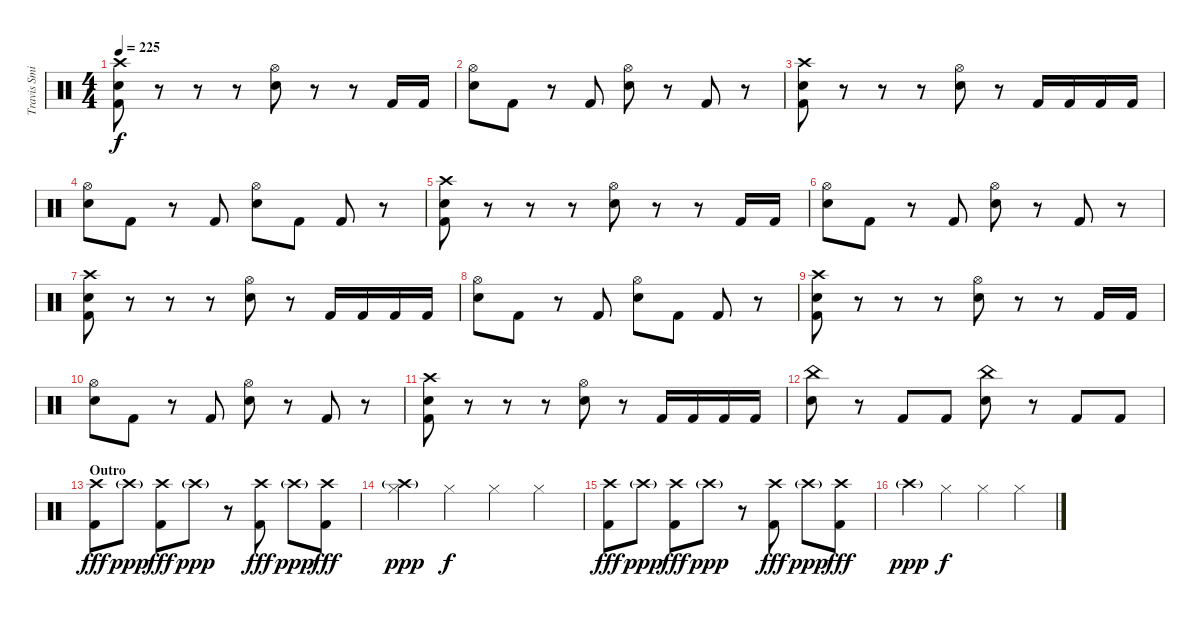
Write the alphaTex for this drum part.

\track ("Travis Smith" "Travis Smi") {instrument percussion}
\staff {score}
\articulation defaults
\ts (4 4)
\tempo 225
\clef neutral
\ks c
("Crash high (hit)" "Electric Snare (hit)" "Kick (hit) 2").8{dy f} r.8 r.8 r.8 ("Hi-Hat (open)" "Electric Snare (hit)").8 r.8 r.8 "Kick (hit) 2".16 "Kick (hit) 2".16 |
("Hi-Hat (open)" "Electric Snare (hit)").8 "Kick (hit) 2".8 r.8 "Kick (hit) 2".8 ("Hi-Hat (open)" "Electric Snare (hit)").8 r.8 "Kick (hit) 2".8 r.8 |
("Crash high (hit)" "Electric Snare (hit)" "Kick (hit) 2").8 r.8 r.8 r.8 ("Hi-Hat (open)" "Electric Snare (hit)").8 r.8 "Kick (hit) 2".16 "Kick (hit) 2".16 "Kick (hit) 2".16 "Kick (hit) 2".16 |
("Hi-Hat (open)" "Electric Snare (hit)").8 "Kick (hit) 2".8 r.8 "Kick (hit) 2".8 ("Hi-Hat (open)" "Electric Snare (hit)").8 "Kick (hit) 2".8 "Kick (hit) 2".8 r.8 |
("Crash high (hit)" "Electric Snare (hit)" "Kick (hit) 2").8 r.8 r.8 r.8 ("Hi-Hat (open)" "Electric Snare (hit)").8 r.8 r.8 "Kick (hit) 2".16 "Kick (hit) 2".16 |
("Hi-Hat (open)" "Electric Snare (hit)").8 "Kick (hit) 2".8 r.8 "Kick (hit) 2".8 ("Hi-Hat (open)" "Electric Snare (hit)").8 r.8 "Kick (hit) 2".8 r.8 |
("Crash high (hit)" "Electric Snare (hit)" "Kick (hit) 2").8 r.8 r.8 r.8 ("Hi-Hat (open)" "Electric Snare (hit)").8 r.8 "Kick (hit) 2".16 "Kick (hit) 2".16 "Kick (hit) 2".16 "Kick (hit) 2".16 |
("Hi-Hat (open)" "Electric Snare (hit)").8 "Kick (hit) 2".8 r.8 "Kick (hit) 2".8 ("Hi-Hat (open)" "Electric Snare (hit)").8 "Kick (hit) 2".8 "Kick (hit) 2".8 r.8 |
("Crash high (hit)" "Electric Snare (hit)" "Kick (hit) 2").8 r.8 r.8 r.8 ("Hi-Hat (open)" "Electric Snare (hit)").8 r.8 r.8 "Kick (hit) 2".16 "Kick (hit) 2".16 |
("Hi-Hat (open)" "Electric Snare (hit)").8 "Kick (hit) 2".8 r.8 "Kick (hit) 2".8 ("Hi-Hat (open)" "Electric Snare (hit)").8 r.8 "Kick (hit) 2".8 r.8 |
("Crash high (hit)" "Electric Snare (hit)" "Kick (hit) 2").8 r.8 r.8 r.8 ("Hi-Hat (open)" "Electric Snare (hit)").8 r.8 "Kick (hit) 2".16 "Kick (hit) 2".16 "Kick (hit) 2".16 "Kick (hit) 2".16 |
("China (hit)" "Electric Snare (hit)").8 r.8 "Kick (hit) 2".8 "Kick (hit) 2".8 ("China (hit)" "Electric Snare (hit)").8 r.8 "Kick (hit) 2".8 "Kick (hit) 2".8 |
\section ("" "Outro")
("Crash high (hit)" "Kick (hit) 2").8{dy fff} "Crash high (hit)"{g}.8{dy ppp} ("Crash high (hit)" "Kick (hit) 2").8{dy fff} "Crash high (hit)"{g}.8{dy ppp} r.8 ("Crash high (hit)" "Kick (hit) 2").8{dy fff} "Crash high (hit)"{g}.8{dy ppp} ("Crash high (hit)" "Kick (hit) 2").8{dy fff} |
("Crash high (hit)"{g} "Hi-Hat (closed)").4{dy ppp} "Hi-Hat (closed)".4{dy f} "Hi-Hat (closed)".4 "Hi-Hat (closed)".4 |
("Crash high (hit)" "Kick (hit) 2").8{dy fff} "Crash high (hit)"{g}.8{dy ppp} ("Crash high (hit)" "Kick (hit) 2").8{dy fff} "Crash high (hit)"{g}.8{dy ppp} r.8 ("Crash high (hit)" "Kick (hit) 2").8{dy fff} "Crash high (hit)"{g}.8{dy ppp} ("Crash high (hit)" "Kick (hit) 2").8{dy fff} |
"Crash high (hit)"{g}.4{dy ppp} "Hi-Hat (closed)".4{dy f} "Hi-Hat (closed)".4 "Hi-Hat (closed)".4
